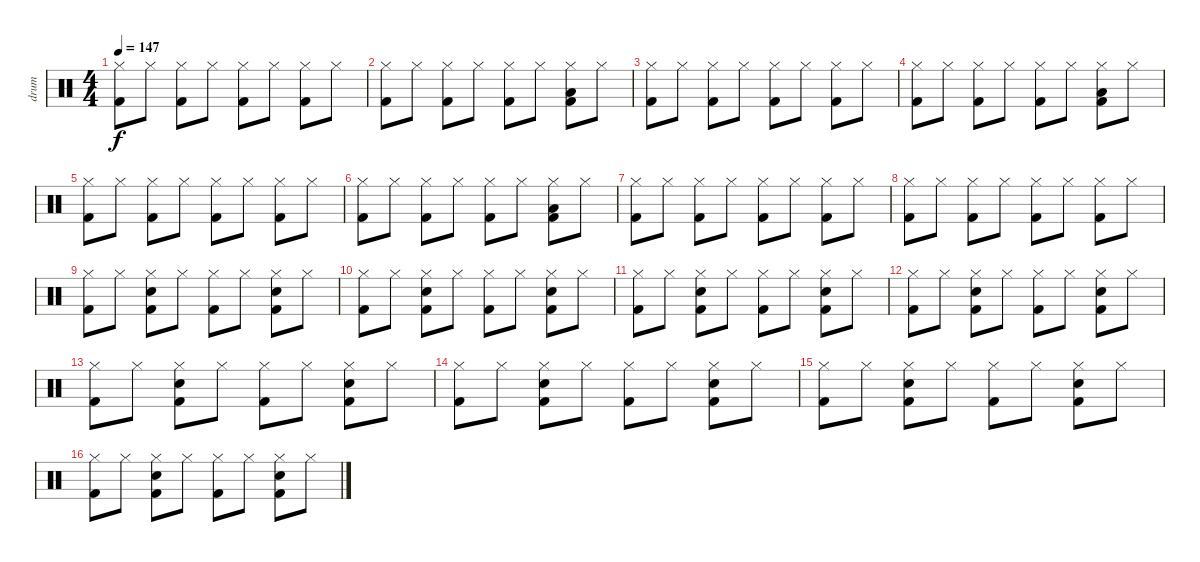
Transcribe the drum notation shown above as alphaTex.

\track ("drum" "drum") {instrument percussion}
\staff {score}
\articulation defaults
\ts (4 4)
\tempo 147
\clef neutral
\ks c
("Hi-Hat (closed)" "Kick (hit) 2").8{dy f} "Hi-Hat (closed)".8 ("Hi-Hat (closed)" "Kick (hit) 2").8 "Hi-Hat (closed)".8 ("Hi-Hat (closed)" "Kick (hit) 2").8 "Hi-Hat (closed)".8 ("Hi-Hat (closed)" "Kick (hit) 2").8 "Hi-Hat (closed)".8 |
("Hi-Hat (closed)" "Kick (hit) 2").8 "Hi-Hat (closed)".8 ("Hi-Hat (closed)" "Kick (hit) 2").8 "Hi-Hat (closed)".8 ("Hi-Hat (closed)" "Kick (hit) 2").8 "Hi-Hat (closed)".8 ("Hi-Hat (closed)" "Low Floor Tom (hit)" "Kick (hit) 2").8 "Hi-Hat (closed)".8 |
("Hi-Hat (closed)" "Kick (hit) 2").8 "Hi-Hat (closed)".8 ("Hi-Hat (closed)" "Kick (hit) 2").8 "Hi-Hat (closed)".8 ("Hi-Hat (closed)" "Kick (hit) 2").8 "Hi-Hat (closed)".8 ("Hi-Hat (closed)" "Kick (hit) 2").8 "Hi-Hat (closed)".8 |
("Hi-Hat (closed)" "Kick (hit) 2").8 "Hi-Hat (closed)".8 ("Hi-Hat (closed)" "Kick (hit) 2").8 "Hi-Hat (closed)".8 ("Hi-Hat (closed)" "Kick (hit) 2").8 "Hi-Hat (closed)".8 ("Hi-Hat (closed)" "Low Floor Tom (hit)" "Kick (hit) 2").8 "Hi-Hat (closed)".8 |
("Hi-Hat (closed)" "Kick (hit) 2").8 "Hi-Hat (closed)".8 ("Hi-Hat (closed)" "Kick (hit) 2").8 "Hi-Hat (closed)".8 ("Hi-Hat (closed)" "Kick (hit) 2").8 "Hi-Hat (closed)".8 ("Hi-Hat (closed)" "Kick (hit) 2").8 "Hi-Hat (closed)".8 |
("Hi-Hat (closed)" "Kick (hit) 2").8 "Hi-Hat (closed)".8 ("Hi-Hat (closed)" "Kick (hit) 2").8 "Hi-Hat (closed)".8 ("Hi-Hat (closed)" "Kick (hit) 2").8 "Hi-Hat (closed)".8 ("Hi-Hat (closed)" "Low Floor Tom (hit)" "Kick (hit) 2").8 "Hi-Hat (closed)".8 |
("Hi-Hat (closed)" "Kick (hit) 2").8 "Hi-Hat (closed)".8 ("Hi-Hat (closed)" "Kick (hit) 2").8 "Hi-Hat (closed)".8 ("Hi-Hat (closed)" "Kick (hit) 2").8 "Hi-Hat (closed)".8 ("Hi-Hat (closed)" "Kick (hit) 2").8 "Hi-Hat (closed)".8 |
("Hi-Hat (closed)" "Kick (hit) 2").8 "Hi-Hat (closed)".8 ("Hi-Hat (closed)" "Kick (hit) 2").8 "Hi-Hat (closed)".8 ("Hi-Hat (closed)" "Kick (hit) 2").8 "Hi-Hat (closed)".8 ("Hi-Hat (closed)" "Kick (hit) 2").8 "Hi-Hat (closed)".8 |
("Hi-Hat (closed)" "Kick (hit) 2").8 "Hi-Hat (closed)".8 ("Hi-Hat (closed)" "Electric Snare (hit)" "Kick (hit) 2").8 "Hi-Hat (closed)".8 ("Hi-Hat (closed)" "Kick (hit) 2").8 "Hi-Hat (closed)".8 ("Hi-Hat (closed)" "Electric Snare (hit)" "Kick (hit) 2").8 "Hi-Hat (closed)".8 |
("Hi-Hat (closed)" "Kick (hit) 2").8 "Hi-Hat (closed)".8 ("Hi-Hat (closed)" "Electric Snare (hit)" "Kick (hit) 2").8 "Hi-Hat (closed)".8 ("Hi-Hat (closed)" "Kick (hit) 2").8 "Hi-Hat (closed)".8 ("Hi-Hat (closed)" "Electric Snare (hit)" "Kick (hit) 2").8 "Hi-Hat (closed)".8 |
("Hi-Hat (closed)" "Kick (hit) 2").8 "Hi-Hat (closed)".8 ("Hi-Hat (closed)" "Electric Snare (hit)" "Kick (hit) 2").8 "Hi-Hat (closed)".8 ("Hi-Hat (closed)" "Kick (hit) 2").8 "Hi-Hat (closed)".8 ("Hi-Hat (closed)" "Electric Snare (hit)" "Kick (hit) 2").8 "Hi-Hat (closed)".8 |
("Hi-Hat (closed)" "Kick (hit) 2").8 "Hi-Hat (closed)".8 ("Hi-Hat (closed)" "Electric Snare (hit)" "Kick (hit) 2").8 "Hi-Hat (closed)".8 ("Hi-Hat (closed)" "Kick (hit) 2").8 "Hi-Hat (closed)".8 ("Hi-Hat (closed)" "Electric Snare (hit)" "Kick (hit) 2").8 "Hi-Hat (closed)".8 |
("Hi-Hat (closed)" "Kick (hit) 2").8 "Hi-Hat (closed)".8 ("Hi-Hat (closed)" "Electric Snare (hit)" "Kick (hit) 2").8 "Hi-Hat (closed)".8 ("Hi-Hat (closed)" "Kick (hit) 2").8 "Hi-Hat (closed)".8 ("Hi-Hat (closed)" "Electric Snare (hit)" "Kick (hit) 2").8 "Hi-Hat (closed)".8 |
("Hi-Hat (closed)" "Kick (hit) 2").8 "Hi-Hat (closed)".8 ("Hi-Hat (closed)" "Electric Snare (hit)" "Kick (hit) 2").8 "Hi-Hat (closed)".8 ("Hi-Hat (closed)" "Kick (hit) 2").8 "Hi-Hat (closed)".8 ("Hi-Hat (closed)" "Electric Snare (hit)" "Kick (hit) 2").8 "Hi-Hat (closed)".8 |
("Hi-Hat (closed)" "Kick (hit) 2").8 "Hi-Hat (closed)".8 ("Hi-Hat (closed)" "Electric Snare (hit)" "Kick (hit) 2").8 "Hi-Hat (closed)".8 ("Hi-Hat (closed)" "Kick (hit) 2").8 "Hi-Hat (closed)".8 ("Hi-Hat (closed)" "Electric Snare (hit)" "Kick (hit) 2").8 "Hi-Hat (closed)".8 |
("Hi-Hat (closed)" "Kick (hit) 2").8 "Hi-Hat (closed)".8 ("Hi-Hat (closed)" "Electric Snare (hit)" "Kick (hit) 2").8 "Hi-Hat (closed)".8 ("Hi-Hat (closed)" "Kick (hit) 2").8 "Hi-Hat (closed)".8 ("Hi-Hat (closed)" "Electric Snare (hit)" "Kick (hit) 2").8 "Hi-Hat (closed)".8
